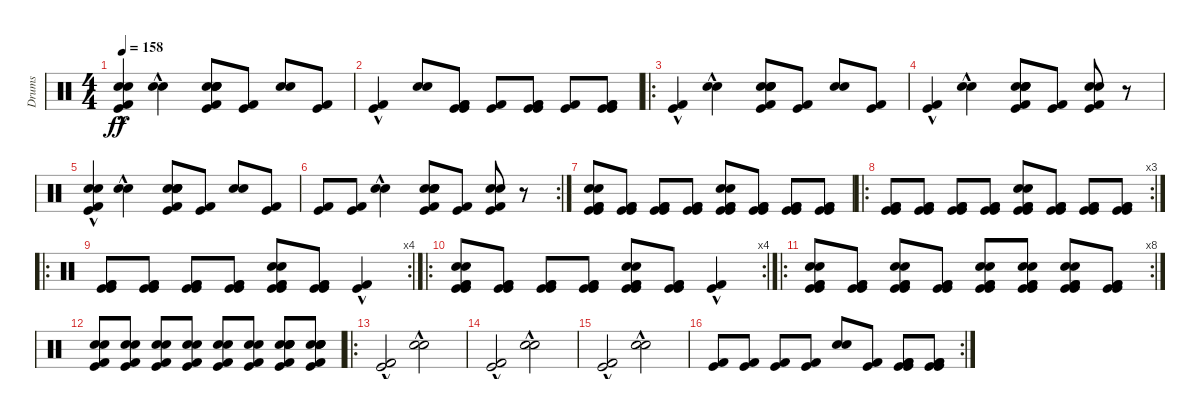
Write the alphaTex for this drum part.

\track ("Drums" "Drums") {instrument percussion}
\staff {score}
\articulation defaults
\ts (4 4)
\tempo 158
\clef neutral
\ks c
("Snare (hit) 2" "Electric Snare (hit)" "Kick (hit)"{hac} "Kick (hit) 2"{hac}).4{dy ff} ("Snare (hit) 2"{hac} "Electric Snare (hit)"{hac}).4 ("Snare (hit) 2" "Electric Snare (hit)" "Kick (hit)" "Kick (hit) 2" "Snare (hit) 2" "Electric Snare (hit)").8 ("Kick (hit)" "Kick (hit) 2").8 ("Snare (hit) 2" "Electric Snare (hit)").8 ("Kick (hit)" "Kick (hit) 2").8 |
("Kick (hit)"{hac} "Kick (hit) 2"{hac}).4 ("Snare (hit) 2" "Electric Snare (hit)").8 ("Kick (hit)" "Kick (hit) 2" "Kick (hit)" "Kick (hit) 2").8 ("Kick (hit)" "Kick (hit) 2").8 ("Kick (hit)" "Kick (hit) 2" "Kick (hit)" "Kick (hit) 2").8 ("Kick (hit)" "Kick (hit) 2").8 ("Kick (hit)" "Kick (hit) 2" "Kick (hit)" "Kick (hit) 2").8 |
\ro
("Kick (hit)"{hac} "Kick (hit) 2"{hac}).4 ("Snare (hit) 2"{hac} "Electric Snare (hit)"{hac}).4 ("Snare (hit) 2" "Electric Snare (hit)" "Kick (hit)" "Kick (hit) 2" "Snare (hit) 2" "Electric Snare (hit)").8 ("Kick (hit)" "Kick (hit) 2").8 ("Snare (hit) 2" "Electric Snare (hit)").8 ("Kick (hit)" "Kick (hit) 2").8 |
("Kick (hit)"{hac} "Kick (hit) 2"{hac}).4 ("Snare (hit) 2"{hac} "Electric Snare (hit)"{hac}).4 ("Snare (hit) 2" "Electric Snare (hit)" "Kick (hit)" "Kick (hit) 2" "Snare (hit) 2" "Electric Snare (hit)").8 ("Kick (hit)" "Kick (hit) 2").8 ("Snare (hit) 2" "Electric Snare (hit)" "Kick (hit)" "Kick (hit) 2").8 r.8 |
("Snare (hit) 2" "Electric Snare (hit)" "Kick (hit)"{hac} "Kick (hit) 2"{hac}).4 ("Snare (hit) 2"{hac} "Electric Snare (hit)"{hac}).4 ("Snare (hit) 2" "Electric Snare (hit)" "Kick (hit)" "Kick (hit) 2" "Snare (hit) 2" "Electric Snare (hit)").8 ("Kick (hit)" "Kick (hit) 2").8 ("Snare (hit) 2" "Electric Snare (hit)").8 ("Kick (hit)" "Kick (hit) 2").8 |
\rc 2
("Kick (hit)" "Kick (hit) 2").8 ("Kick (hit)" "Kick (hit) 2").8 ("Snare (hit) 2"{hac} "Electric Snare (hit)"{hac}).4 ("Snare (hit) 2" "Electric Snare (hit)" "Kick (hit)" "Kick (hit) 2" "Snare (hit) 2" "Electric Snare (hit)").8 ("Kick (hit)" "Kick (hit) 2").8 ("Snare (hit) 2" "Electric Snare (hit)" "Kick (hit)" "Kick (hit) 2").8 r.8 |
("Snare (hit) 2" "Electric Snare (hit)" "Kick (hit)" "Kick (hit) 2" "Kick (hit)" "Kick (hit) 2").8 ("Kick (hit)" "Kick (hit) 2" "Kick (hit)" "Kick (hit) 2").8 ("Kick (hit)" "Kick (hit) 2" "Kick (hit)" "Kick (hit) 2").8 ("Kick (hit)" "Kick (hit) 2" "Kick (hit)" "Kick (hit) 2").8 ("Kick (hit)" "Kick (hit) 2" "Snare (hit) 2" "Electric Snare (hit)" "Kick (hit)" "Kick (hit) 2").8 ("Kick (hit)" "Kick (hit) 2" "Kick (hit)" "Kick (hit) 2").8 ("Kick (hit)" "Kick (hit) 2" "Kick (hit)" "Kick (hit) 2").8 ("Kick (hit)" "Kick (hit) 2" "Kick (hit)" "Kick (hit) 2").8 |
\ro
\rc 3
("Kick (hit)" "Kick (hit) 2" "Kick (hit)" "Kick (hit) 2").8 ("Kick (hit)" "Kick (hit) 2" "Kick (hit)" "Kick (hit) 2").8 ("Kick (hit)" "Kick (hit) 2" "Kick (hit)" "Kick (hit) 2").8 ("Kick (hit)" "Kick (hit) 2" "Kick (hit)" "Kick (hit) 2").8 ("Kick (hit)" "Kick (hit) 2" "Snare (hit) 2" "Electric Snare (hit)" "Kick (hit)" "Kick (hit) 2").8 ("Kick (hit)" "Kick (hit) 2" "Kick (hit)" "Kick (hit) 2").8 ("Kick (hit)" "Kick (hit) 2" "Kick (hit)" "Kick (hit) 2").8 ("Kick (hit)" "Kick (hit) 2" "Kick (hit)" "Kick (hit) 2").8 |
\ro
\rc 4
("Kick (hit)" "Kick (hit) 2" "Kick (hit)" "Kick (hit) 2").8 ("Kick (hit)" "Kick (hit) 2" "Kick (hit)" "Kick (hit) 2").8 ("Kick (hit)" "Kick (hit) 2" "Kick (hit)" "Kick (hit) 2").8 ("Kick (hit)" "Kick (hit) 2" "Kick (hit)" "Kick (hit) 2").8 ("Kick (hit)" "Kick (hit) 2" "Snare (hit) 2" "Electric Snare (hit)" "Kick (hit)" "Kick (hit) 2").8 ("Kick (hit)" "Kick (hit) 2" "Kick (hit)" "Kick (hit) 2").8 ("Kick (hit)"{hac} "Kick (hit) 2"{hac}).4 |
\ro
\rc 4
("Kick (hit)" "Kick (hit) 2" "Snare (hit) 2" "Electric Snare (hit)" "Kick (hit)" "Kick (hit) 2").8 ("Kick (hit)" "Kick (hit) 2" "Kick (hit)" "Kick (hit) 2").8 ("Kick (hit)" "Kick (hit) 2" "Kick (hit)" "Kick (hit) 2").8 ("Kick (hit)" "Kick (hit) 2" "Kick (hit)" "Kick (hit) 2").8 ("Kick (hit)" "Kick (hit) 2" "Snare (hit) 2" "Electric Snare (hit)" "Kick (hit)" "Kick (hit) 2").8 ("Kick (hit)" "Kick (hit) 2" "Kick (hit)" "Kick (hit) 2").8 ("Kick (hit)"{hac} "Kick (hit) 2"{hac}).4 |
\ro
\rc 8
("Kick (hit)" "Kick (hit) 2" "Snare (hit) 2" "Electric Snare (hit)" "Kick (hit)" "Kick (hit) 2").8 ("Kick (hit)" "Kick (hit) 2" "Kick (hit)" "Kick (hit) 2").8 ("Kick (hit)" "Kick (hit) 2" "Snare (hit) 2" "Electric Snare (hit)" "Kick (hit)" "Kick (hit) 2").8 ("Kick (hit)" "Kick (hit) 2" "Kick (hit)" "Kick (hit) 2").8 ("Kick (hit)" "Kick (hit) 2" "Snare (hit) 2" "Electric Snare (hit)" "Kick (hit)" "Kick (hit) 2").8 ("Kick (hit)" "Kick (hit) 2" "Kick (hit)" "Kick (hit) 2" "Snare (hit) 2" "Electric Snare (hit)").8 ("Kick (hit)" "Kick (hit) 2" "Kick (hit)" "Kick (hit) 2" "Snare (hit) 2" "Electric Snare (hit)").8 ("Kick (hit)" "Kick (hit) 2" "Kick (hit)" "Kick (hit) 2").8 |
("Kick (hit)" "Kick (hit) 2" "Snare (hit) 2" "Electric Snare (hit)").8 ("Kick (hit)" "Kick (hit) 2" "Snare (hit) 2" "Electric Snare (hit)").8 ("Kick (hit)" "Kick (hit) 2" "Snare (hit) 2" "Electric Snare (hit)").8 ("Kick (hit)" "Kick (hit) 2" "Snare (hit) 2" "Electric Snare (hit)").8 ("Kick (hit)" "Kick (hit) 2" "Snare (hit) 2" "Electric Snare (hit)").8 ("Kick (hit)" "Kick (hit) 2" "Snare (hit) 2" "Electric Snare (hit)").8 ("Kick (hit)" "Kick (hit) 2" "Snare (hit) 2" "Electric Snare (hit)" "Snare (hit) 2" "Electric Snare (hit)").8 ("Kick (hit)" "Kick (hit) 2" "Snare (hit) 2" "Electric Snare (hit)" "Snare (hit) 2" "Electric Snare (hit)").8 |
\ro
("Kick (hit)"{hac} "Kick (hit) 2"{hac}).2 ("Snare (hit) 2"{hac} "Electric Snare (hit)"{hac}).2 |
("Kick (hit)"{hac} "Kick (hit) 2"{hac}).2 ("Snare (hit) 2"{hac} "Electric Snare (hit)"{hac}).2 |
("Kick (hit)"{hac} "Kick (hit) 2"{hac}).2 ("Snare (hit) 2"{hac} "Electric Snare (hit)"{hac}).2 |
\rc 2
("Kick (hit)" "Kick (hit) 2").8 ("Kick (hit)" "Kick (hit) 2").8 ("Kick (hit)" "Kick (hit) 2").8 ("Kick (hit)" "Kick (hit) 2").8 ("Snare (hit) 2" "Electric Snare (hit)").8 ("Kick (hit)" "Kick (hit) 2").8 ("Kick (hit)" "Kick (hit) 2" "Kick (hit)" "Kick (hit) 2").8 ("Kick (hit)" "Kick (hit) 2" "Kick (hit)" "Kick (hit) 2").8
